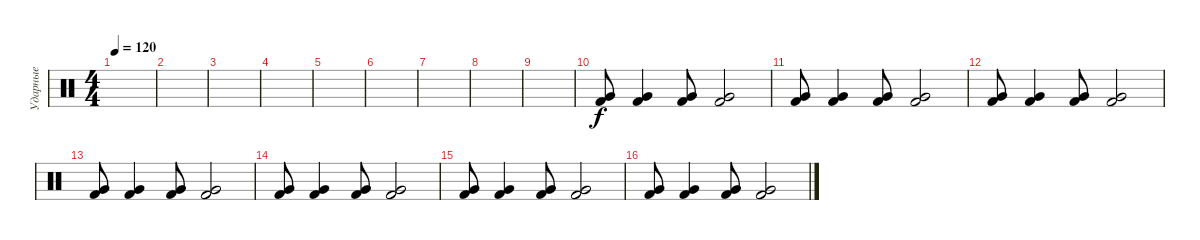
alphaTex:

\track ("Ударные" "Ударные") {instrument percussion}
\staff {score}
\articulation defaults
\ts (4 4)
\tempo 120
\clef neutral
\ks c
|
|
|
|
|
|
|
|
|
("Very Low Tom (hit)" "Kick (hit) 2").8 ("Very Low Tom (hit)" "Kick (hit) 2").4 ("Very Low Tom (hit)" "Kick (hit) 2").8 ("Very Low Tom (hit)" "Kick (hit) 2").2 |
("Very Low Tom (hit)" "Kick (hit) 2").8 ("Very Low Tom (hit)" "Kick (hit) 2").4 ("Very Low Tom (hit)" "Kick (hit) 2").8 ("Very Low Tom (hit)" "Kick (hit) 2").2 |
("Very Low Tom (hit)" "Kick (hit) 2").8 ("Very Low Tom (hit)" "Kick (hit) 2").4 ("Very Low Tom (hit)" "Kick (hit) 2").8 ("Very Low Tom (hit)" "Kick (hit) 2").2 |
("Very Low Tom (hit)" "Kick (hit) 2").8 ("Very Low Tom (hit)" "Kick (hit) 2").4 ("Very Low Tom (hit)" "Kick (hit) 2").8 ("Very Low Tom (hit)" "Kick (hit) 2").2 |
("Very Low Tom (hit)" "Kick (hit) 2").8 ("Very Low Tom (hit)" "Kick (hit) 2").4 ("Very Low Tom (hit)" "Kick (hit) 2").8 ("Very Low Tom (hit)" "Kick (hit) 2").2 |
("Very Low Tom (hit)" "Kick (hit) 2").8 ("Very Low Tom (hit)" "Kick (hit) 2").4 ("Very Low Tom (hit)" "Kick (hit) 2").8 ("Very Low Tom (hit)" "Kick (hit) 2").2 |
("Very Low Tom (hit)" "Kick (hit) 2").8 ("Very Low Tom (hit)" "Kick (hit) 2").4 ("Very Low Tom (hit)" "Kick (hit) 2").8 ("Very Low Tom (hit)" "Kick (hit) 2").2
